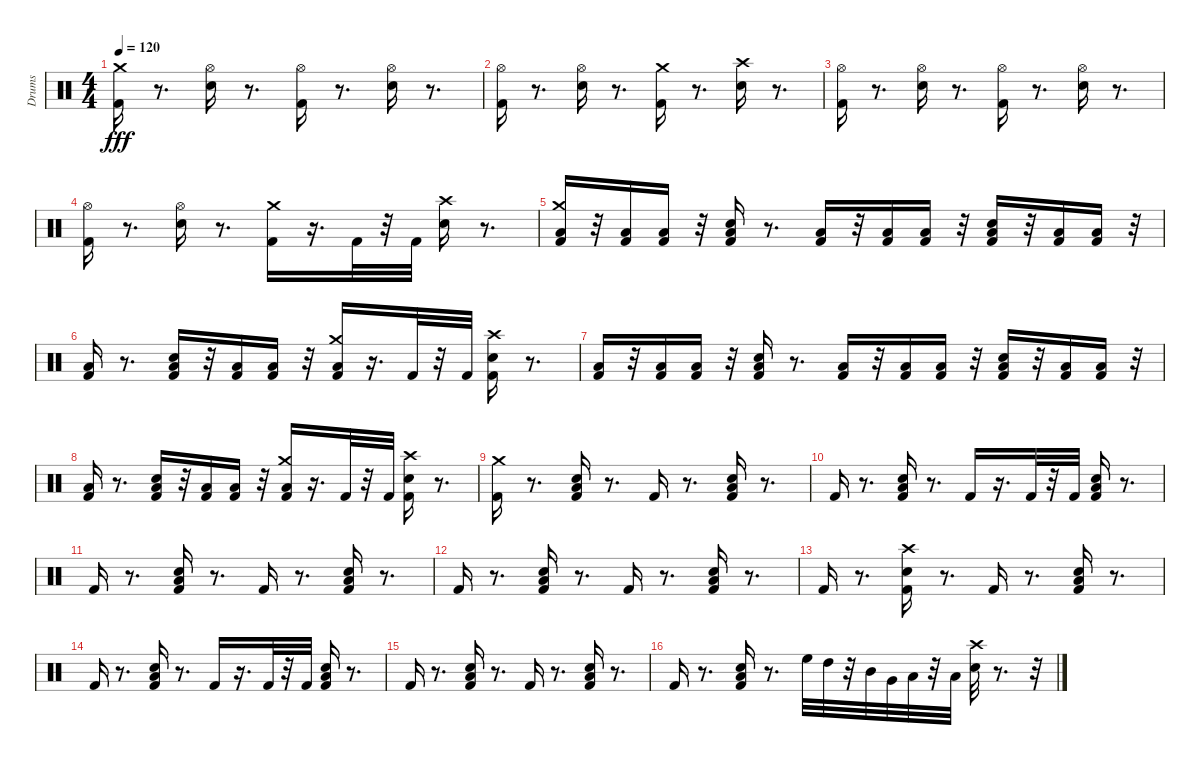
\track ("Drums" "Drums") {instrument percussion}
\staff {score}
\articulation defaults
\ts (4 4)
\tempo 120
\clef neutral
\ks c
("Kick (hit) 2" "Crash medium (hit)").16{dy fff} r.8{d} ("Electric Snare (hit)" "Hi-Hat (open)").16 r.8{d} ("Kick (hit) 2" "Hi-Hat (open)").16 r.8{d} ("Electric Snare (hit)" "Hi-Hat (open)").16 r.8{d} |
("Kick (hit) 2" "Hi-Hat (open)").16 r.8{d} ("Electric Snare (hit)" "Hi-Hat (open)").16 r.8{d} ("Kick (hit) 2" "Crash medium (hit)").16 r.8{d} ("Electric Snare (hit)" "Crash high (hit)").16 r.8{d} |
("Kick (hit) 2" "Hi-Hat (open)").16 r.8{d} ("Electric Snare (hit)" "Hi-Hat (open)").16 r.8{d} ("Kick (hit) 2" "Hi-Hat (open)").16 r.8{d} ("Electric Snare (hit)" "Hi-Hat (open)").16 r.8{d} |
("Kick (hit) 2" "Hi-Hat (open)").16 r.8{d} ("Electric Snare (hit)" "Hi-Hat (open)").16 r.8{d} ("Kick (hit) 2" "Crash medium (hit)").16 r.16{d} "Kick (hit) 2".32 r.32 "Kick (hit) 2".32 ("Electric Snare (hit)" "Crash high (hit)").16 r.8{d} |
("Kick (hit) 2" "Low Floor Tom (hit)" "Crash medium (hit)").16 r.32 ("Kick (hit) 2" "Low Floor Tom (hit)").16 ("Low Floor Tom (hit)" "Kick (hit) 2").16 r.32 ("Electric Snare (hit)" "Kick (hit) 2" "Low Floor Tom (hit)").16 r.8{d} ("Kick (hit) 2" "Low Floor Tom (hit)").16 r.32 ("Kick (hit) 2" "Low Floor Tom (hit)").16 ("Kick (hit) 2" "Low Floor Tom (hit)").16 r.32 ("Electric Snare (hit)" "Kick (hit) 2" "Low Floor Tom (hit)").16 r.32 ("Kick (hit) 2" "Low Floor Tom (hit)").16 ("Kick (hit) 2" "Low Floor Tom (hit)").16 r.32 |
("Kick (hit) 2" "Low Floor Tom (hit)").16 r.8{d} ("Electric Snare (hit)" "Kick (hit) 2" "Low Floor Tom (hit)").16 r.32 ("Kick (hit) 2" "Low Floor Tom (hit)").16 ("Kick (hit) 2" "Low Floor Tom (hit)").16 r.32 ("Kick (hit) 2" "Low Floor Tom (hit)" "Crash medium (hit)").16 r.16{d} "Kick (hit) 2".32 r.32 "Kick (hit) 2".32 ("Electric Snare (hit)" "Kick (hit) 2" "Crash high (hit)").16 r.8{d} |
("Kick (hit) 2" "Low Floor Tom (hit)").16 r.32 ("Kick (hit) 2" "Low Floor Tom (hit)").16 ("Kick (hit) 2" "Low Floor Tom (hit)").16 r.32 ("Electric Snare (hit)" "Kick (hit) 2" "Low Floor Tom (hit)").16 r.8{d} ("Kick (hit) 2" "Low Floor Tom (hit)").16 r.32 ("Kick (hit) 2" "Low Floor Tom (hit)").16 ("Kick (hit) 2" "Low Floor Tom (hit)").16 r.32 ("Electric Snare (hit)" "Kick (hit) 2" "Low Floor Tom (hit)").16 r.32 ("Kick (hit) 2" "Low Floor Tom (hit)").16 ("Kick (hit) 2" "Low Floor Tom (hit)").16 r.32 |
("Kick (hit) 2" "Low Floor Tom (hit)").16 r.8{d} ("Electric Snare (hit)" "Kick (hit) 2" "Low Floor Tom (hit)").16 r.32 ("Kick (hit) 2" "Low Floor Tom (hit)").16 ("Kick (hit) 2" "Low Floor Tom (hit)").16 r.32 ("Kick (hit) 2" "Low Floor Tom (hit)" "Crash medium (hit)").16 r.16{d} "Kick (hit) 2".32 r.32 "Kick (hit) 2".32 ("Electric Snare (hit)" "Kick (hit) 2" "Crash high (hit)").16 r.8{d} |
("Kick (hit) 2" "Crash medium (hit)").16 r.8{d} ("Electric Snare (hit)" "Low Floor Tom (hit)" "Kick (hit) 2").16 r.8{d} "Kick (hit) 2".16 r.8{d} ("Electric Snare (hit)" "Low Floor Tom (hit)" "Kick (hit) 2").16 r.8{d} |
"Kick (hit) 2".16 r.8{d} ("Electric Snare (hit)" "Low Floor Tom (hit)" "Kick (hit) 2").16 r.8{d} "Kick (hit) 2".16 r.16{d} "Kick (hit) 2".32 r.32 "Kick (hit) 2".32 ("Electric Snare (hit)" "Low Floor Tom (hit)" "Kick (hit) 2").16 r.8{d} |
"Kick (hit) 2".16 r.8{d} ("Electric Snare (hit)" "Low Floor Tom (hit)" "Kick (hit) 2").16 r.8{d} "Kick (hit) 2".16 r.8{d} ("Electric Snare (hit)" "Low Floor Tom (hit)" "Kick (hit) 2").16 r.8{d} |
"Kick (hit) 2".16 r.8{d} ("Electric Snare (hit)" "Low Floor Tom (hit)" "Kick (hit) 2").16 r.8{d} "Kick (hit) 2".16 r.8{d} ("Electric Snare (hit)" "Low Floor Tom (hit)" "Kick (hit) 2").16 r.8{d} |
"Kick (hit) 2".16 r.8{d} ("Electric Snare (hit)" "Kick (hit) 2" "Crash high (hit)").16 r.8{d} "Kick (hit) 2".16 r.8{d} ("Electric Snare (hit)" "Low Floor Tom (hit)" "Kick (hit) 2").16 r.8{d} |
"Kick (hit) 2".16 r.8{d} ("Electric Snare (hit)" "Low Floor Tom (hit)" "Kick (hit) 2").16 r.8{d} "Kick (hit) 2".16 r.16{d} "Kick (hit) 2".32 r.32 "Kick (hit) 2".32 ("Electric Snare (hit)" "Low Floor Tom (hit)" "Kick (hit) 2").16 r.8{d} |
"Kick (hit) 2".16 r.8{d} ("Electric Snare (hit)" "Low Floor Tom (hit)" "Kick (hit) 2").16 r.8{d} "Kick (hit) 2".16 r.8{d} ("Electric Snare (hit)" "Low Floor Tom (hit)" "Kick (hit) 2").16 r.8{d} |
"Kick (hit) 2".16 r.8{d} ("Electric Snare (hit)" "Low Floor Tom (hit)" "Kick (hit) 2").16 r.8{d} "High Floor Tom (hit)".32 "High Tom (hit)".32 r.32 "Mid Tom (hit)".32 "Very Low Tom (hit)".32 "Low Tom (hit)".32 r.32 "Low Floor Tom (hit)".32 ("Electric Snare (hit)" "Crash high (hit)").32 r.8{d} r.32
